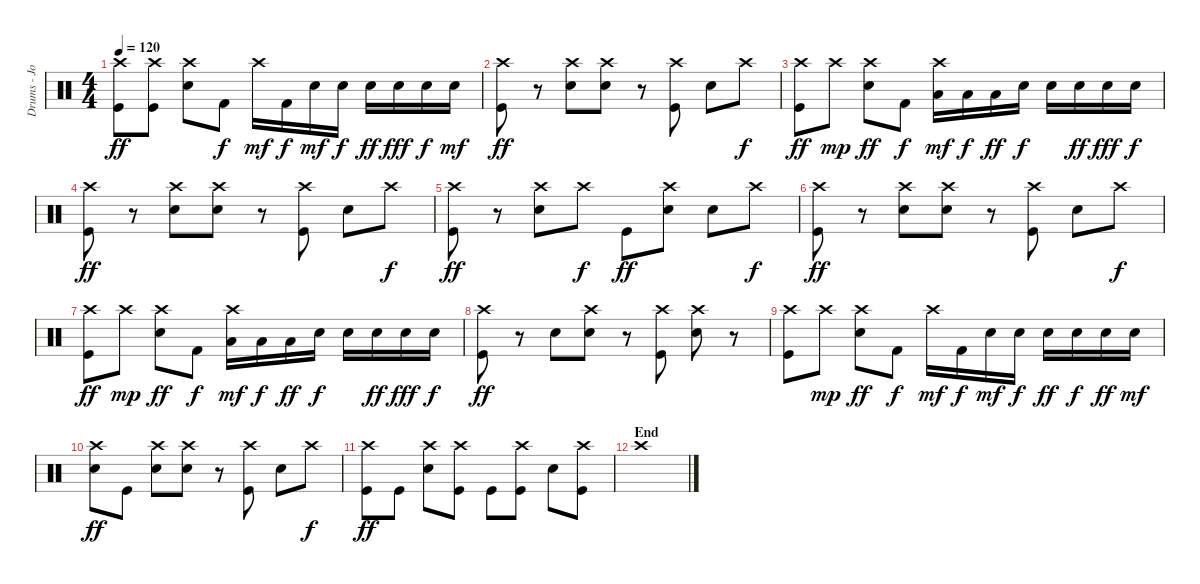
\track ("Drums - Josh Klinghoffer" "Drums - Jo") {instrument percussion}
\staff {score}
\articulation defaults
\ts (4 4)
\tempo 120
\clef neutral
\ks c
("Crash high (hit)" "Kick (hit)").8{dy ff} ("Crash high (hit)" "Kick (hit)").8 ("Crash high (hit)" "Snare (hit) 2").8 "Kick (hit) 2".8{dy f} "Crash high (hit)".16{dy mf} "Kick (hit) 2".16{dy f} "Snare (hit) 2".16{dy mf} "Snare (hit) 2".16{dy f} "Snare (hit) 2".16{dy ff} "Snare (hit) 2".16{dy fff} "Snare (hit) 2".16{dy f} "Snare (hit) 2".16{dy mf} |
("Crash high (hit)" "Kick (hit)").8{dy ff} r.8 ("Crash high (hit)" "Snare (hit) 2").8 ("Crash high (hit)" "Snare (hit) 2").8 r.8 ("Crash high (hit)" "Kick (hit)").8 "Snare (hit) 2".8 "Crash high (hit)".8{dy f} |
("Crash high (hit)" "Kick (hit)").8{dy ff} "Crash high (hit)".8{dy mp} ("Crash high (hit)" "Snare (hit) 2").8{dy ff} "Kick (hit) 2".8{dy f} ("Crash high (hit)" "Low Tom (hit)").16{dy mf} "Low Tom (hit)".16{dy f} "Low Tom (hit)".16{dy ff} "Snare (hit) 2".16{dy f} "Snare (hit) 2".16 "Snare (hit) 2".16{dy ff} "Snare (hit) 2".16{dy fff} "Snare (hit) 2".16{dy f} |
("Crash high (hit)" "Kick (hit)").8{dy ff} r.8 ("Crash high (hit)" "Snare (hit) 2").8 ("Crash high (hit)" "Snare (hit) 2").8 r.8 ("Crash high (hit)" "Kick (hit)").8 "Snare (hit) 2".8 "Crash high (hit)".8{dy f} |
("Crash high (hit)" "Kick (hit)").8{dy ff} r.8 ("Crash high (hit)" "Snare (hit) 2").8 "Crash high (hit)".8{dy f} "Kick (hit)".8{dy ff} ("Crash high (hit)" "Snare (hit) 2").8 "Snare (hit) 2".8 "Crash high (hit)".8{dy f} |
("Crash high (hit)" "Kick (hit)").8{dy ff} r.8 ("Crash high (hit)" "Snare (hit) 2").8 ("Crash high (hit)" "Snare (hit) 2").8 r.8 ("Crash high (hit)" "Kick (hit)").8 "Snare (hit) 2".8 "Crash high (hit)".8{dy f} |
("Crash high (hit)" "Kick (hit)").8{dy ff} "Crash high (hit)".8{dy mp} ("Crash high (hit)" "Snare (hit) 2").8{dy ff} "Kick (hit) 2".8{dy f} ("Crash high (hit)" "Low Tom (hit)").16{dy mf} "Low Tom (hit)".16{dy f} "Low Tom (hit)".16{dy ff} "Snare (hit) 2".16{dy f} "Snare (hit) 2".16 "Snare (hit) 2".16{dy ff} "Snare (hit) 2".16{dy fff} "Snare (hit) 2".16{dy f} |
("Crash high (hit)" "Kick (hit)").8{dy ff} r.8 "Snare (hit) 2".8 ("Crash high (hit)" "Snare (hit) 2").8 r.8 ("Crash high (hit)" "Kick (hit)").8 ("Crash high (hit)" "Snare (hit) 2").8 r.8 |
("Crash high (hit)" "Kick (hit)").8 "Crash high (hit)".8{dy mp} ("Crash high (hit)" "Snare (hit) 2").8{dy ff} "Kick (hit) 2".8{dy f} "Crash high (hit)".16{dy mf} "Kick (hit) 2".16{dy f} "Snare (hit) 2".16{dy mf} "Snare (hit) 2".16{dy f} "Snare (hit) 2".16{dy ff} "Snare (hit) 2".16{dy f} "Snare (hit) 2".16{dy ff} "Snare (hit) 2".16{dy mf} |
("Crash high (hit)" "Snare (hit) 2").8{dy ff} "Kick (hit)".8 ("Crash high (hit)" "Snare (hit) 2").8 ("Crash high (hit)" "Snare (hit) 2").8 r.8 ("Crash high (hit)" "Kick (hit)").8 "Snare (hit) 2".8 "Crash high (hit)".8{dy f} |
("Crash high (hit)" "Kick (hit)").8{dy ff} "Kick (hit)".8 ("Crash high (hit)" "Snare (hit) 2").8 ("Crash high (hit)" "Kick (hit)").8 "Kick (hit)".8 ("Crash high (hit)" "Kick (hit)").8 "Snare (hit) 2".8 ("Crash high (hit)" "Kick (hit)").8 |
\section ("" "End")
"Crash high (hit)".1
